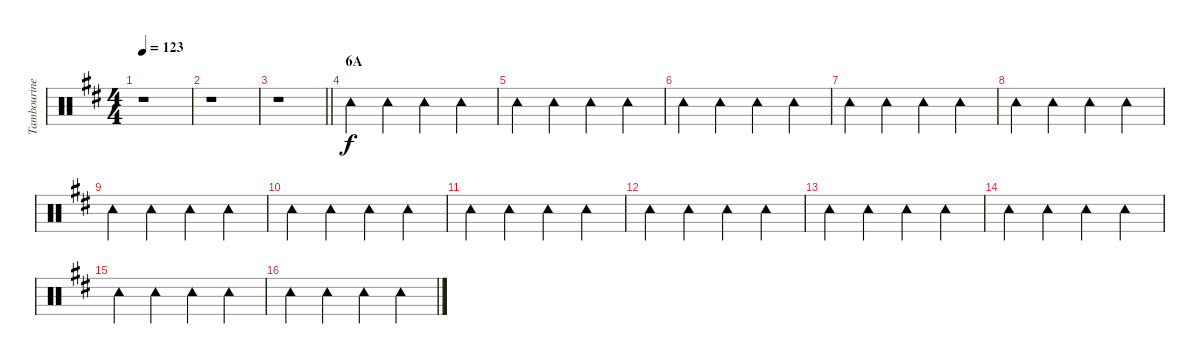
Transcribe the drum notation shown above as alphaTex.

\track ("Tambourine" "Tambourine") {instrument percussion}
\staff {score}
\articulation defaults
\ts (4 4)
\tempo 123
\clef neutral
\ks d
r.1{dy f} |
r.1 |
\barLineRight lightlight
r.1 |
\section ("" "6A")
"Tambourine (hit)".4 "Tambourine (hit)".4 "Tambourine (hit)".4 "Tambourine (hit)".4 |
"Tambourine (hit)".4 "Tambourine (hit)".4 "Tambourine (hit)".4 "Tambourine (hit)".4 |
"Tambourine (hit)".4 "Tambourine (hit)".4 "Tambourine (hit)".4 "Tambourine (hit)".4 |
"Tambourine (hit)".4 "Tambourine (hit)".4 "Tambourine (hit)".4 "Tambourine (hit)".4 |
"Tambourine (hit)".4 "Tambourine (hit)".4 "Tambourine (hit)".4 "Tambourine (hit)".4 |
"Tambourine (hit)".4 "Tambourine (hit)".4 "Tambourine (hit)".4 "Tambourine (hit)".4 |
"Tambourine (hit)".4 "Tambourine (hit)".4 "Tambourine (hit)".4 "Tambourine (hit)".4 |
"Tambourine (hit)".4 "Tambourine (hit)".4 "Tambourine (hit)".4 "Tambourine (hit)".4 |
"Tambourine (hit)".4 "Tambourine (hit)".4 "Tambourine (hit)".4 "Tambourine (hit)".4 |
"Tambourine (hit)".4 "Tambourine (hit)".4 "Tambourine (hit)".4 "Tambourine (hit)".4 |
"Tambourine (hit)".4 "Tambourine (hit)".4 "Tambourine (hit)".4 "Tambourine (hit)".4 |
"Tambourine (hit)".4 "Tambourine (hit)".4 "Tambourine (hit)".4 "Tambourine (hit)".4 |
"Tambourine (hit)".4 "Tambourine (hit)".4 "Tambourine (hit)".4 "Tambourine (hit)".4
